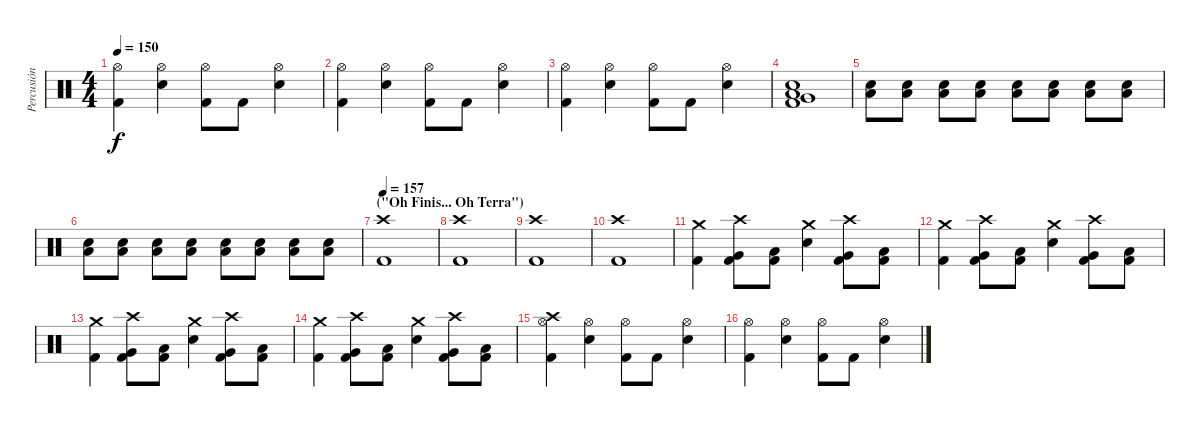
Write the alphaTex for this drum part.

\track ("Percusión" "Percusión") {instrument percussion}
\staff {score}
\articulation defaults
\ts (4 4)
\tempo 150
\clef neutral
\ks c
("Hi-Hat (open)" "Kick (hit) 2").4{dy f} ("Hi-Hat (open)" "Snare (hit) 2").4 ("Hi-Hat (open)" "Kick (hit) 2").8 "Kick (hit) 2".8 ("Hi-Hat (open)" "Snare (hit) 2").4 |
("Hi-Hat (open)" "Kick (hit) 2").4 ("Hi-Hat (open)" "Snare (hit) 2").4 ("Hi-Hat (open)" "Kick (hit) 2").8 "Kick (hit) 2".8 ("Hi-Hat (open)" "Snare (hit) 2").4 |
("Hi-Hat (open)" "Kick (hit) 2").4 ("Hi-Hat (open)" "Snare (hit) 2").4 ("Hi-Hat (open)" "Kick (hit) 2").8 "Kick (hit) 2".8 ("Hi-Hat (open)" "Snare (hit) 2").4 |
("Very Low Tom (hit)" "Snare (hit) 2" "Low Floor Tom (hit)" "Kick (hit) 2").1 |
("Snare (hit) 2" "Low Floor Tom (hit)").8{volume 10} ("Snare (hit) 2" "Low Floor Tom (hit)").8{volume 13} ("Snare (hit) 2" "Low Floor Tom (hit)").8 ("Snare (hit) 2" "Low Floor Tom (hit)").8 ("Snare (hit) 2" "Low Floor Tom (hit)").8 ("Snare (hit) 2" "Low Floor Tom (hit)").8 ("Snare (hit) 2" "Low Floor Tom (hit)").8 ("Snare (hit) 2" "Low Floor Tom (hit)").8 |
("Snare (hit) 2" "Low Floor Tom (hit)").8 ("Snare (hit) 2" "Low Floor Tom (hit)").8 ("Snare (hit) 2" "Low Floor Tom (hit)").8 ("Snare (hit) 2" "Low Floor Tom (hit)").8 ("Snare (hit) 2" "Low Floor Tom (hit)").8 ("Snare (hit) 2" "Low Floor Tom (hit)").8 ("Snare (hit) 2" "Low Floor Tom (hit)").8 ("Snare (hit) 2" "Low Floor Tom (hit)").8 |
\section ("" "(\"Oh Finis... Oh Terra\")")
\tempo 157
("Crash high (hit)" "Kick (hit) 2").1 |
("Crash high (hit)" "Kick (hit) 2").1 |
("Crash high (hit)" "Kick (hit) 2").1 |
("Crash high (hit)" "Kick (hit) 2").1 |
("Crash medium (hit)" "Kick (hit) 2").4 ("Crash high (hit)" "Very Low Tom (hit)" "Kick (hit) 2").8 ("Low Floor Tom (hit)" "Kick (hit) 2").8 ("Crash medium (hit)" "Snare (hit) 2").4 ("Crash high (hit)" "Very Low Tom (hit)" "Kick (hit) 2").8 ("Low Floor Tom (hit)" "Kick (hit) 2").8 |
("Crash medium (hit)" "Kick (hit) 2").4 ("Crash high (hit)" "Very Low Tom (hit)" "Kick (hit) 2").8 ("Low Floor Tom (hit)" "Kick (hit) 2").8 ("Crash medium (hit)" "Snare (hit) 2").4 ("Crash high (hit)" "Very Low Tom (hit)" "Kick (hit) 2").8 ("Low Floor Tom (hit)" "Kick (hit) 2").8 |
("Crash medium (hit)" "Kick (hit) 2").4 ("Crash high (hit)" "Very Low Tom (hit)" "Kick (hit) 2").8 ("Low Floor Tom (hit)" "Kick (hit) 2").8 ("Crash medium (hit)" "Snare (hit) 2").4 ("Crash high (hit)" "Very Low Tom (hit)" "Kick (hit) 2").8 ("Low Floor Tom (hit)" "Kick (hit) 2").8 |
("Crash medium (hit)" "Kick (hit) 2").4 ("Crash high (hit)" "Very Low Tom (hit)" "Kick (hit) 2").8 ("Low Floor Tom (hit)" "Kick (hit) 2").8 ("Crash medium (hit)" "Snare (hit) 2").4 ("Crash high (hit)" "Very Low Tom (hit)" "Kick (hit) 2").8 ("Low Floor Tom (hit)" "Kick (hit) 2").8 |
("Crash high (hit)" "Hi-Hat (open)" "Kick (hit) 2").4 ("Hi-Hat (open)" "Snare (hit) 2").4 ("Hi-Hat (open)" "Kick (hit) 2").8 "Kick (hit) 2".8 ("Hi-Hat (open)" "Snare (hit) 2").4 |
("Hi-Hat (open)" "Kick (hit) 2").4 ("Hi-Hat (open)" "Snare (hit) 2").4 ("Hi-Hat (open)" "Kick (hit) 2").8 "Kick (hit) 2".8 ("Hi-Hat (open)" "Snare (hit) 2").4
